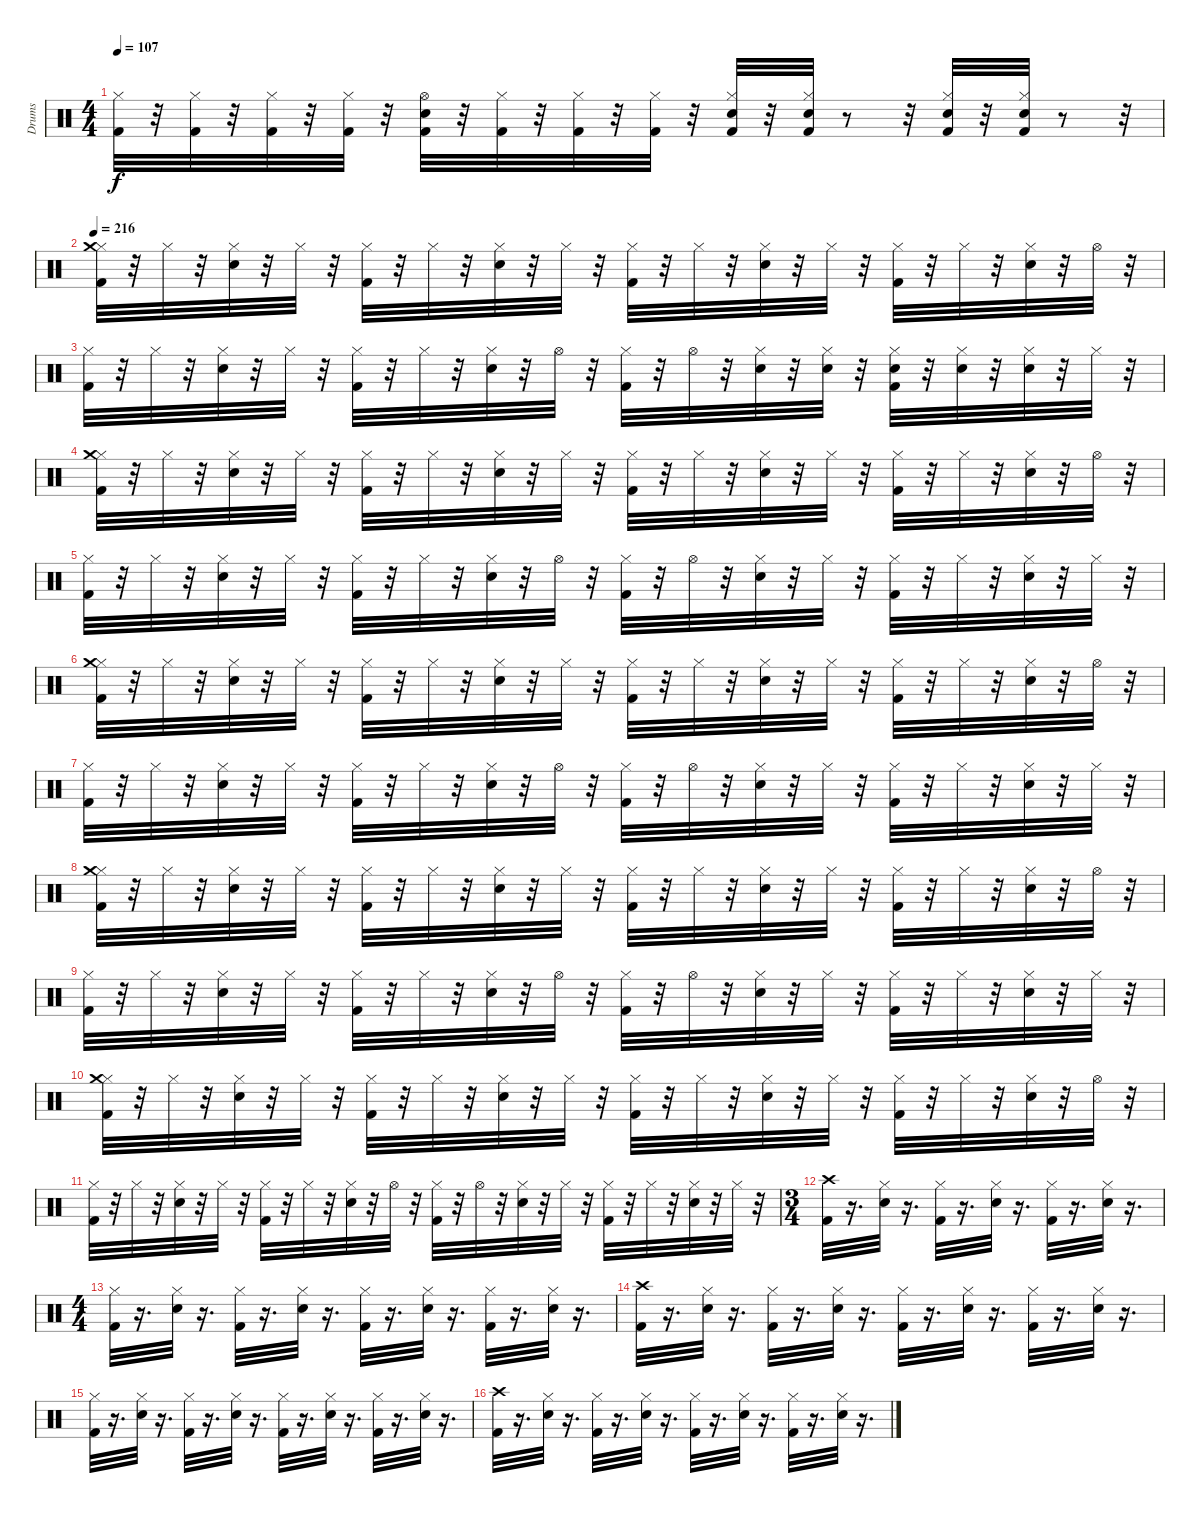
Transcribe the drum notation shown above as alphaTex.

\track ("Drums" "Drums") {instrument percussion}
\staff {score}
\articulation defaults
\ts (4 4)
\tempo 107
\clef neutral
\ks c
("Kick (hit) 2" "Hi-Hat (closed)").32{dy f} r.32 ("Kick (hit) 2" "Hi-Hat (closed)").32 r.32 ("Kick (hit) 2" "Hi-Hat (closed)").32 r.32 ("Kick (hit) 2" "Hi-Hat (closed)").32 r.32 ("Kick (hit) 2" "Snare (hit) 2" "Hi-Hat (open)").32 r.32 ("Kick (hit) 2" "Hi-Hat (closed)").32 r.32 ("Kick (hit) 2" "Hi-Hat (closed)").32 r.32 ("Kick (hit) 2" "Hi-Hat (closed)").32 r.32 ("Kick (hit) 2" "Snare (hit) 2" "Hi-Hat (closed)").32 r.32 ("Kick (hit) 2" "Snare (hit) 2" "Hi-Hat (closed)").32 r.8 r.32 ("Kick (hit) 2" "Snare (hit) 2" "Hi-Hat (closed)").32 r.32 ("Kick (hit) 2" "Snare (hit) 2" "Hi-Hat (closed)").32 r.8 r.32 |
\tempo 216
("Kick (hit) 2" "Hi-Hat (closed)" "Crash medium (hit)").32 r.32 "Hi-Hat (closed)".32 r.32 ("Snare (hit) 2" "Hi-Hat (closed)").32 r.32 "Hi-Hat (closed)".32 r.32 ("Kick (hit) 2" "Hi-Hat (closed)").32 r.32 "Hi-Hat (closed)".32 r.32 ("Snare (hit) 2" "Hi-Hat (closed)").32 r.32 "Hi-Hat (closed)".32 r.32 ("Kick (hit) 2" "Hi-Hat (closed)").32 r.32 "Hi-Hat (closed)".32 r.32 ("Snare (hit) 2" "Hi-Hat (closed)").32 r.32 "Hi-Hat (closed)".32 r.32 ("Kick (hit) 2" "Hi-Hat (closed)").32 r.32 "Hi-Hat (closed)".32 r.32 ("Snare (hit) 2" "Hi-Hat (closed)").32 r.32 "Hi-Hat (open)".32 r.32 |
("Kick (hit) 2" "Hi-Hat (closed)").32 r.32 "Hi-Hat (closed)".32 r.32 ("Snare (hit) 2" "Hi-Hat (closed)").32 r.32 "Hi-Hat (closed)".32 r.32 ("Kick (hit) 2" "Hi-Hat (closed)").32 r.32 "Hi-Hat (closed)".32 r.32 ("Snare (hit) 2" "Hi-Hat (closed)").32 r.32 "Hi-Hat (open)".32 r.32 ("Kick (hit) 2" "Hi-Hat (closed)").32 r.32 "Hi-Hat (open)".32 r.32 ("Snare (hit) 2" "Hi-Hat (closed)").32 r.32 ("Hi-Hat (closed)" "Snare (hit) 2").32 r.32 ("Kick (hit) 2" "Hi-Hat (closed)" "Snare (hit) 2").32 r.32 ("Hi-Hat (closed)" "Snare (hit) 2").32 r.32 ("Snare (hit) 2" "Hi-Hat (closed)").32 r.32 "Hi-Hat (closed)".32 r.32 |
("Kick (hit) 2" "Hi-Hat (closed)" "Crash medium (hit)").32 r.32 "Hi-Hat (closed)".32 r.32 ("Snare (hit) 2" "Hi-Hat (closed)").32 r.32 "Hi-Hat (closed)".32 r.32 ("Kick (hit) 2" "Hi-Hat (closed)").32 r.32 "Hi-Hat (closed)".32 r.32 ("Snare (hit) 2" "Hi-Hat (closed)").32 r.32 "Hi-Hat (closed)".32 r.32 ("Kick (hit) 2" "Hi-Hat (closed)").32 r.32 "Hi-Hat (closed)".32 r.32 ("Snare (hit) 2" "Hi-Hat (closed)").32 r.32 "Hi-Hat (closed)".32 r.32 ("Kick (hit) 2" "Hi-Hat (closed)").32 r.32 "Hi-Hat (closed)".32 r.32 ("Snare (hit) 2" "Hi-Hat (closed)").32 r.32 "Hi-Hat (open)".32 r.32 |
("Kick (hit) 2" "Hi-Hat (closed)").32 r.32 "Hi-Hat (closed)".32 r.32 ("Snare (hit) 2" "Hi-Hat (closed)").32 r.32 "Hi-Hat (closed)".32 r.32 ("Kick (hit) 2" "Hi-Hat (closed)").32 r.32 "Hi-Hat (closed)".32 r.32 ("Snare (hit) 2" "Hi-Hat (closed)").32 r.32 "Hi-Hat (open)".32 r.32 ("Kick (hit) 2" "Hi-Hat (closed)").32 r.32 "Hi-Hat (open)".32 r.32 ("Snare (hit) 2" "Hi-Hat (closed)").32 r.32 "Hi-Hat (closed)".32 r.32 ("Kick (hit) 2" "Hi-Hat (closed)").32 r.32 "Hi-Hat (closed)".32 r.32 ("Snare (hit) 2" "Hi-Hat (closed)").32 r.32 "Hi-Hat (closed)".32 r.32 |
("Kick (hit) 2" "Hi-Hat (closed)" "Crash medium (hit)").32 r.32 "Hi-Hat (closed)".32 r.32 ("Snare (hit) 2" "Hi-Hat (closed)").32 r.32 "Hi-Hat (closed)".32 r.32 ("Kick (hit) 2" "Hi-Hat (closed)").32 r.32 "Hi-Hat (closed)".32 r.32 ("Snare (hit) 2" "Hi-Hat (closed)").32 r.32 "Hi-Hat (closed)".32 r.32 ("Kick (hit) 2" "Hi-Hat (closed)").32 r.32 "Hi-Hat (closed)".32 r.32 ("Snare (hit) 2" "Hi-Hat (closed)").32 r.32 "Hi-Hat (closed)".32 r.32 ("Kick (hit) 2" "Hi-Hat (closed)").32 r.32 "Hi-Hat (closed)".32 r.32 ("Snare (hit) 2" "Hi-Hat (closed)").32 r.32 "Hi-Hat (open)".32 r.32 |
("Kick (hit) 2" "Hi-Hat (closed)").32 r.32 "Hi-Hat (closed)".32 r.32 ("Snare (hit) 2" "Hi-Hat (closed)").32 r.32 "Hi-Hat (closed)".32 r.32 ("Kick (hit) 2" "Hi-Hat (closed)").32 r.32 "Hi-Hat (closed)".32 r.32 ("Snare (hit) 2" "Hi-Hat (closed)").32 r.32 "Hi-Hat (open)".32 r.32 ("Kick (hit) 2" "Hi-Hat (closed)").32 r.32 "Hi-Hat (open)".32 r.32 ("Snare (hit) 2" "Hi-Hat (closed)").32 r.32 "Hi-Hat (closed)".32 r.32 ("Kick (hit) 2" "Hi-Hat (closed)").32 r.32 "Hi-Hat (closed)".32 r.32 ("Snare (hit) 2" "Hi-Hat (closed)").32 r.32 "Hi-Hat (closed)".32 r.32 |
("Kick (hit) 2" "Hi-Hat (closed)" "Crash medium (hit)").32 r.32 "Hi-Hat (closed)".32 r.32 ("Snare (hit) 2" "Hi-Hat (closed)").32 r.32 "Hi-Hat (closed)".32 r.32 ("Kick (hit) 2" "Hi-Hat (closed)").32 r.32 "Hi-Hat (closed)".32 r.32 ("Snare (hit) 2" "Hi-Hat (closed)").32 r.32 "Hi-Hat (closed)".32 r.32 ("Kick (hit) 2" "Hi-Hat (closed)").32 r.32 "Hi-Hat (closed)".32 r.32 ("Snare (hit) 2" "Hi-Hat (closed)").32 r.32 "Hi-Hat (closed)".32 r.32 ("Kick (hit) 2" "Hi-Hat (closed)").32 r.32 "Hi-Hat (closed)".32 r.32 ("Snare (hit) 2" "Hi-Hat (closed)").32 r.32 "Hi-Hat (open)".32 r.32 |
("Kick (hit) 2" "Hi-Hat (closed)").32 r.32 "Hi-Hat (closed)".32 r.32 ("Snare (hit) 2" "Hi-Hat (closed)").32 r.32 "Hi-Hat (closed)".32 r.32 ("Kick (hit) 2" "Hi-Hat (closed)").32 r.32 "Hi-Hat (closed)".32 r.32 ("Snare (hit) 2" "Hi-Hat (closed)").32 r.32 "Hi-Hat (open)".32 r.32 ("Kick (hit) 2" "Hi-Hat (closed)").32 r.32 "Hi-Hat (open)".32 r.32 ("Snare (hit) 2" "Hi-Hat (closed)").32 r.32 "Hi-Hat (closed)".32 r.32 ("Kick (hit) 2" "Hi-Hat (closed)").32 r.32 "Hi-Hat (closed)".32 r.32 ("Snare (hit) 2" "Hi-Hat (closed)").32 r.32 "Hi-Hat (closed)".32 r.32 |
("Kick (hit) 2" "Hi-Hat (closed)" "Crash medium (hit)").32 r.32 "Hi-Hat (closed)".32 r.32 ("Snare (hit) 2" "Hi-Hat (closed)").32 r.32 "Hi-Hat (closed)".32 r.32 ("Kick (hit) 2" "Hi-Hat (closed)").32 r.32 "Hi-Hat (closed)".32 r.32 ("Snare (hit) 2" "Hi-Hat (closed)").32 r.32 "Hi-Hat (closed)".32 r.32 ("Kick (hit) 2" "Hi-Hat (closed)").32 r.32 "Hi-Hat (closed)".32 r.32 ("Snare (hit) 2" "Hi-Hat (closed)").32 r.32 "Hi-Hat (closed)".32 r.32 ("Kick (hit) 2" "Hi-Hat (closed)").32 r.32 "Hi-Hat (closed)".32 r.32 ("Snare (hit) 2" "Hi-Hat (closed)").32 r.32 "Hi-Hat (open)".32 r.32 |
("Kick (hit) 2" "Hi-Hat (closed)").32 r.32 "Hi-Hat (closed)".32 r.32 ("Snare (hit) 2" "Hi-Hat (closed)").32 r.32 "Hi-Hat (closed)".32 r.32 ("Kick (hit) 2" "Hi-Hat (closed)").32 r.32 "Hi-Hat (closed)".32 r.32 ("Snare (hit) 2" "Hi-Hat (closed)").32 r.32 "Hi-Hat (open)".32 r.32 ("Kick (hit) 2" "Hi-Hat (closed)").32 r.32 "Hi-Hat (open)".32 r.32 ("Snare (hit) 2" "Hi-Hat (closed)").32 r.32 "Hi-Hat (closed)".32 r.32 ("Kick (hit) 2" "Hi-Hat (closed)").32 r.32 "Hi-Hat (closed)".32 r.32 ("Snare (hit) 2" "Hi-Hat (closed)").32 r.32 "Hi-Hat (closed)".32 r.32 |
\ts (3 4)
("Kick (hit) 2" "Crash high (hit)").32 r.16{d} ("Snare (hit) 2" "Hi-Hat (closed)").32 r.16{d} ("Kick (hit) 2" "Hi-Hat (closed)").32 r.16{d} ("Snare (hit) 2" "Hi-Hat (closed)").32 r.16{d} ("Kick (hit) 2" "Hi-Hat (closed)").32 r.16{d} ("Snare (hit) 2" "Hi-Hat (closed)").32 r.16{d} |
\ts (4 4)
("Kick (hit) 2" "Hi-Hat (closed)").32 r.16{d} ("Snare (hit) 2" "Hi-Hat (closed)").32 r.16{d} ("Kick (hit) 2" "Hi-Hat (closed)").32 r.16{d} ("Snare (hit) 2" "Hi-Hat (closed)").32 r.16{d} ("Kick (hit) 2" "Hi-Hat (closed)").32 r.16{d} ("Snare (hit) 2" "Hi-Hat (closed)").32 r.16{d} ("Kick (hit) 2" "Hi-Hat (closed)").32 r.16{d} ("Snare (hit) 2" "Hi-Hat (closed)").32 r.16{d} |
("Kick (hit) 2" "Crash high (hit)").32 r.16{d} ("Snare (hit) 2" "Hi-Hat (closed)").32 r.16{d} ("Kick (hit) 2" "Hi-Hat (closed)").32 r.16{d} ("Snare (hit) 2" "Hi-Hat (closed)").32 r.16{d} ("Kick (hit) 2" "Hi-Hat (closed)").32 r.16{d} ("Snare (hit) 2" "Hi-Hat (closed)").32 r.16{d} ("Kick (hit) 2" "Hi-Hat (closed)").32 r.16{d} ("Snare (hit) 2" "Hi-Hat (closed)").32 r.16{d} |
("Kick (hit) 2" "Hi-Hat (closed)").32 r.16{d} ("Snare (hit) 2" "Hi-Hat (closed)").32 r.16{d} ("Kick (hit) 2" "Hi-Hat (closed)").32 r.16{d} ("Snare (hit) 2" "Hi-Hat (closed)").32 r.16{d} ("Kick (hit) 2" "Hi-Hat (closed)").32 r.16{d} ("Snare (hit) 2" "Hi-Hat (closed)").32 r.16{d} ("Kick (hit) 2" "Hi-Hat (closed)").32 r.16{d} ("Snare (hit) 2" "Hi-Hat (closed)").32 r.16{d} |
("Kick (hit) 2" "Crash high (hit)").32 r.16{d} ("Snare (hit) 2" "Hi-Hat (closed)").32 r.16{d} ("Kick (hit) 2" "Hi-Hat (closed)").32 r.16{d} ("Snare (hit) 2" "Hi-Hat (closed)").32 r.16{d} ("Kick (hit) 2" "Hi-Hat (closed)").32 r.16{d} ("Snare (hit) 2" "Hi-Hat (closed)").32 r.16{d} ("Kick (hit) 2" "Hi-Hat (closed)").32 r.16{d} ("Snare (hit) 2" "Hi-Hat (closed)").32 r.16{d}
